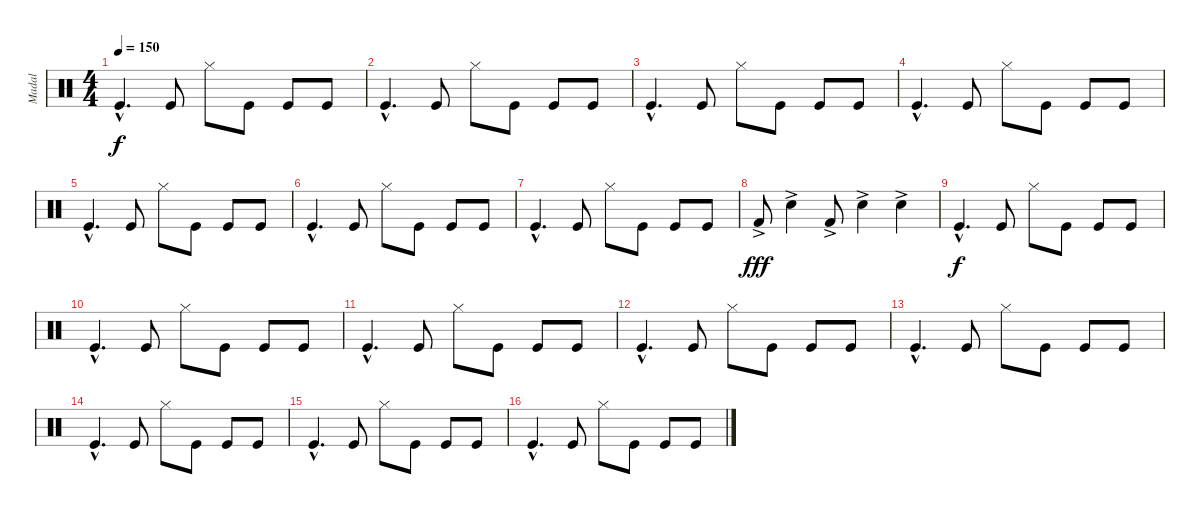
\track ("Madal" "Madal") {instrument percussion}
\staff {score}
\articulation defaults
\ts (4 4)
\tempo 150
\clef neutral
\ks c "Kick (hit)"{hac}.4{d dy f} "Kick (hit)".8 "Hi-Hat (closed)".8 "Kick (hit)".8 "Kick (hit)".8 "Kick (hit)".8
|
"Kick (hit)"{hac}.4{d} "Kick (hit)".8 "Hi-Hat (closed)".8 "Kick (hit)".8 "Kick (hit)".8 "Kick (hit)".8 |
"Kick (hit)"{hac}.4{d} "Kick (hit)".8 "Hi-Hat (closed)".8 "Kick (hit)".8 "Kick (hit)".8 "Kick (hit)".8 |
"Kick (hit)"{hac}.4{d} "Kick (hit)".8 "Hi-Hat (closed)".8 "Kick (hit)".8 "Kick (hit)".8 "Kick (hit)".8 |
"Kick (hit)"{hac}.4{d} "Kick (hit)".8 "Hi-Hat (closed)".8 "Kick (hit)".8 "Kick (hit)".8 "Kick (hit)".8 |
"Kick (hit)"{hac}.4{d} "Kick (hit)".8 "Hi-Hat (closed)".8 "Kick (hit)".8 "Kick (hit)".8 "Kick (hit)".8 |
"Kick (hit)"{hac}.4{d} "Kick (hit)".8 "Hi-Hat (closed)".8 "Kick (hit)".8 "Kick (hit)".8 "Kick (hit)".8 |
"Kick (hit) 2"{ac}.8{dy fff volume 6} "Electric Snare (hit)"{ac}.4 "Kick (hit) 2"{ac}.8 "Electric Snare (hit)"{ac}.4 "Electric Snare (hit)"{ac}.4 |
"Kick (hit)"{hac}.4{d dy f} "Kick (hit)".8 "Hi-Hat (closed)".8 "Kick (hit)".8 "Kick (hit)".8 "Kick (hit)".8 |
"Kick (hit)"{hac}.4{d} "Kick (hit)".8 "Hi-Hat (closed)".8 "Kick (hit)".8 "Kick (hit)".8 "Kick (hit)".8 |
"Kick (hit)"{hac}.4{d} "Kick (hit)".8 "Hi-Hat (closed)".8 "Kick (hit)".8 "Kick (hit)".8 "Kick (hit)".8 |
"Kick (hit)"{hac}.4{d} "Kick (hit)".8 "Hi-Hat (closed)".8 "Kick (hit)".8 "Kick (hit)".8 "Kick (hit)".8 |
"Kick (hit)"{hac}.4{d} "Kick (hit)".8 "Hi-Hat (closed)".8 "Kick (hit)".8 "Kick (hit)".8 "Kick (hit)".8 |
"Kick (hit)"{hac}.4{d} "Kick (hit)".8 "Hi-Hat (closed)".8 "Kick (hit)".8 "Kick (hit)".8 "Kick (hit)".8 |
"Kick (hit)"{hac}.4{d} "Kick (hit)".8 "Hi-Hat (closed)".8 "Kick (hit)".8 "Kick (hit)".8 "Kick (hit)".8 |
"Kick (hit)"{hac}.4{d} "Kick (hit)".8 "Hi-Hat (closed)".8 "Kick (hit)".8 "Kick (hit)".8 "Kick (hit)".8
